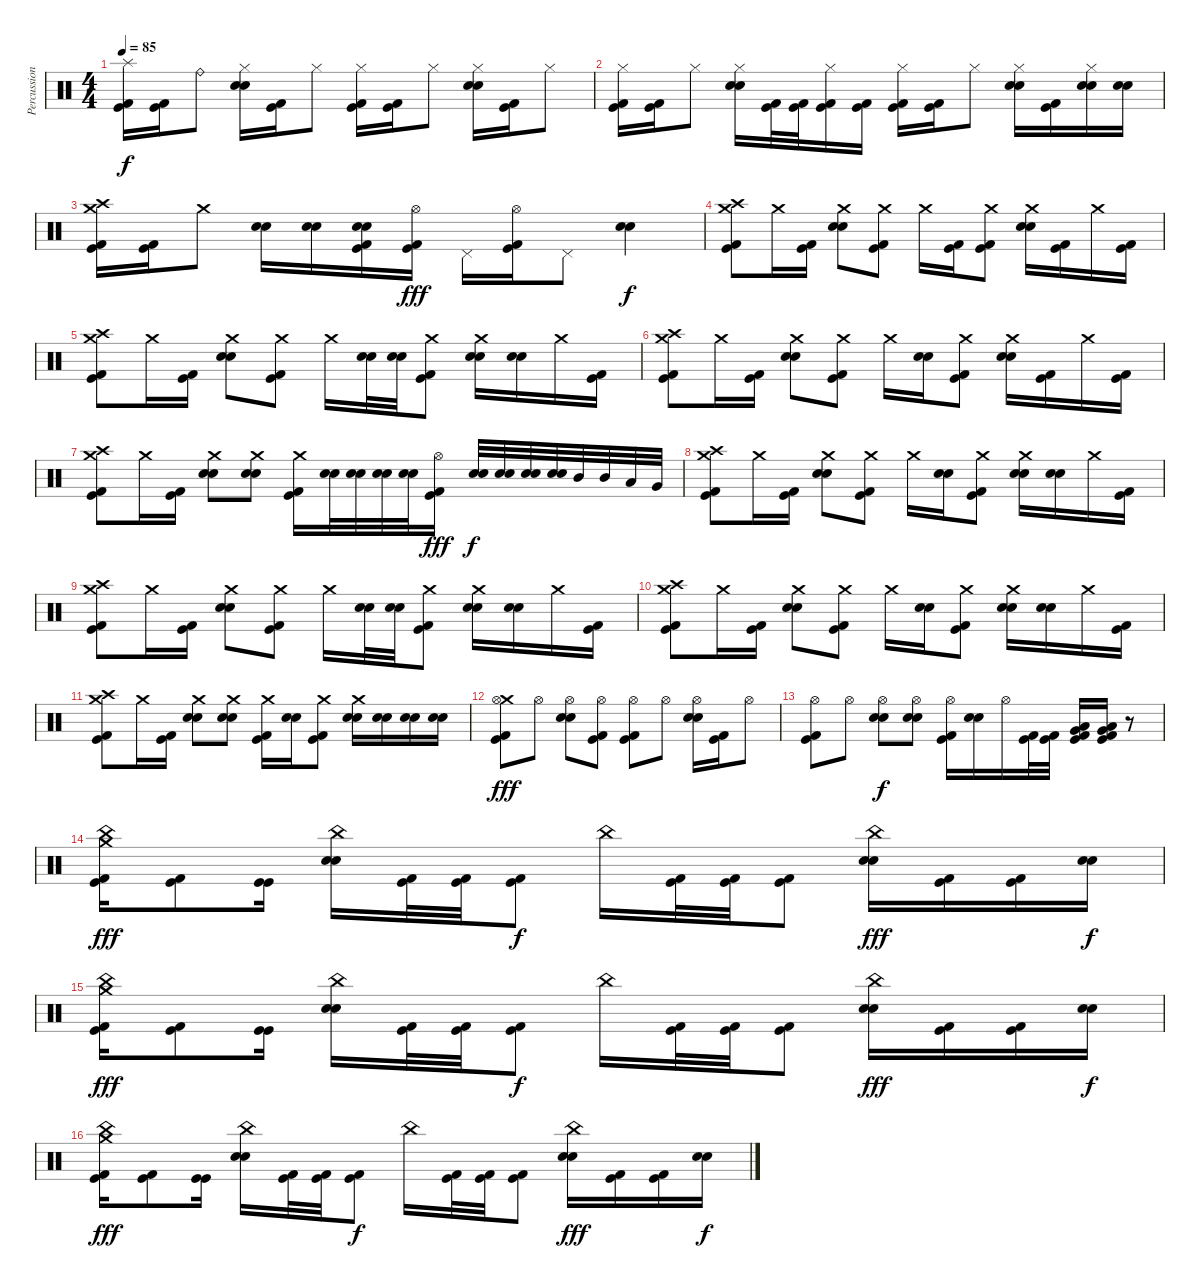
\track ("Percussion" "Percussion") {instrument percussion}
\staff {score}
\articulation defaults
\ts (4 4)
\tempo 85
\clef neutral
\ks c
("Splash (hit)" "Kick (hit)" "Kick (hit) 2").16{dy f balance 2} ("Kick (hit)" "Kick (hit) 2").16 "Ride (bell)".8{balance 14} ("Hi-Hat (closed)" "Electric Snare (hit)" "Snare (hit) 2").16{balance 8} ("Kick (hit)" "Kick (hit) 2").16 "Hi-Hat (closed)".8 ("Hi-Hat (closed)" "Kick (hit)" "Kick (hit) 2").16 ("Kick (hit)" "Kick (hit) 2").16 "Hi-Hat (closed)".8 ("Hi-Hat (closed)" "Electric Snare (hit)" "Snare (hit) 2").16 ("Kick (hit)" "Kick (hit) 2").16 "Hi-Hat (closed)".8 |
("Hi-Hat (closed)" "Kick (hit)" "Kick (hit) 2").16 ("Kick (hit)" "Kick (hit) 2").16 "Hi-Hat (closed)".8 ("Hi-Hat (closed)" "Electric Snare (hit)" "Snare (hit) 2").16 ("Kick (hit)" "Kick (hit) 2").32 ("Kick (hit)" "Kick (hit) 2").32 ("Hi-Hat (closed)" "Kick (hit)" "Kick (hit) 2").16 ("Kick (hit)" "Kick (hit) 2").16 ("Hi-Hat (closed)" "Kick (hit)" "Kick (hit) 2").16 ("Kick (hit)" "Kick (hit) 2").16 "Hi-Hat (closed)".8 ("Hi-Hat (closed)" "Electric Snare (hit)" "Snare (hit) 2").16 ("Kick (hit)" "Kick (hit) 2").16 ("Hi-Hat (closed)" "Electric Snare (hit)" "Snare (hit) 2").16 ("Electric Snare (hit)" "Snare (hit) 2").16 |
("Crash high (hit)" "Crash medium (hit)" "Kick (hit)" "Kick (hit) 2").16 ("Kick (hit)" "Kick (hit) 2").16 "Crash medium (hit)".8 ("Electric Snare (hit)" "Snare (hit) 2").16 ("Electric Snare (hit)" "Snare (hit) 2").16 ("Electric Snare (hit)" "Snare (hit) 2" "Kick (hit)" "Kick (hit) 2").16 ("Hi-Hat (open)" "Kick (hit)" "Kick (hit) 2").16{dy fff} "Pedal Hi-Hat (hit)".16 ("Hi-Hat (open)" "Kick (hit)" "Kick (hit) 2").16 "Pedal Hi-Hat (hit)".8 ("Electric Snare (hit)" "Snare (hit) 2").4{dy f} |
("Crash high (hit)" "Crash medium (hit)" "Kick (hit)" "Kick (hit) 2").8 "Crash medium (hit)".16 ("Kick (hit)" "Kick (hit) 2").16 ("Crash medium (hit)" "Electric Snare (hit)" "Snare (hit) 2").8 ("Crash medium (hit)" "Kick (hit)" "Kick (hit) 2").8 "Crash medium (hit)".16 ("Kick (hit)" "Kick (hit) 2").16 ("Crash medium (hit)" "Kick (hit)" "Kick (hit) 2").8 ("Crash medium (hit)" "Electric Snare (hit)" "Snare (hit) 2").16 ("Kick (hit)" "Kick (hit) 2").16 "Crash medium (hit)".16 ("Kick (hit)" "Kick (hit) 2").16 |
("Crash high (hit)" "Crash medium (hit)" "Kick (hit)" "Kick (hit) 2").8 "Crash medium (hit)".16 ("Kick (hit)" "Kick (hit) 2").16 ("Crash medium (hit)" "Electric Snare (hit)" "Snare (hit) 2").8 ("Crash medium (hit)" "Kick (hit)" "Kick (hit) 2").8 "Crash medium (hit)".16 ("Electric Snare (hit)" "Snare (hit) 2").32 ("Electric Snare (hit)" "Snare (hit) 2").32 ("Crash medium (hit)" "Kick (hit)" "Kick (hit) 2").8 ("Crash medium (hit)" "Electric Snare (hit)" "Snare (hit) 2").16 ("Electric Snare (hit)" "Snare (hit) 2").16 "Crash medium (hit)".16 ("Kick (hit)" "Kick (hit) 2").16 |
("Crash high (hit)" "Crash medium (hit)" "Kick (hit)" "Kick (hit) 2").8 "Crash medium (hit)".16 ("Kick (hit)" "Kick (hit) 2").16 ("Crash medium (hit)" "Electric Snare (hit)" "Snare (hit) 2").8 ("Crash medium (hit)" "Kick (hit)" "Kick (hit) 2").8 "Crash medium (hit)".16 ("Electric Snare (hit)" "Snare (hit) 2").16 ("Crash medium (hit)" "Kick (hit)" "Kick (hit) 2").8 ("Crash medium (hit)" "Electric Snare (hit)" "Snare (hit) 2").16 ("Kick (hit)" "Kick (hit) 2").16 "Crash medium (hit)".16 ("Kick (hit)" "Kick (hit) 2").16 |
("Crash high (hit)" "Crash medium (hit)" "Kick (hit)" "Kick (hit) 2").8 "Crash medium (hit)".16 ("Kick (hit)" "Kick (hit) 2").16 ("Crash medium (hit)" "Electric Snare (hit)" "Snare (hit) 2").8 ("Crash medium (hit)" "Electric Snare (hit)" "Snare (hit) 2").8 ("Crash medium (hit)" "Kick (hit)" "Kick (hit) 2").16 ("Electric Snare (hit)" "Snare (hit) 2").32 ("Electric Snare (hit)" "Snare (hit) 2").32 ("Electric Snare (hit)" "Snare (hit) 2").32 ("Electric Snare (hit)" "Snare (hit) 2").32 ("Hi-Hat (open)" "Kick (hit)" "Kick (hit) 2").16{dy fff} ("Electric Snare (hit)" "Snare (hit) 2").32{dy f} ("Electric Snare (hit)" "Snare (hit) 2").32 ("Electric Snare (hit)" "Snare (hit) 2").32 ("Electric Snare (hit)" "Snare (hit) 2").32 "Mid Tom (hit)".32 "Mid Tom (hit)".32 "Low Tom (hit)".32 "Very Low Tom (hit)".32 |
("Crash high (hit)" "Crash medium (hit)" "Kick (hit)" "Kick (hit) 2").8 "Crash medium (hit)".16 ("Kick (hit)" "Kick (hit) 2").16 ("Crash medium (hit)" "Electric Snare (hit)" "Snare (hit) 2").8 ("Crash medium (hit)" "Kick (hit)" "Kick (hit) 2").8 "Crash medium (hit)".16 ("Electric Snare (hit)" "Snare (hit) 2").16 ("Crash medium (hit)" "Kick (hit)" "Kick (hit) 2").8 ("Crash medium (hit)" "Electric Snare (hit)" "Snare (hit) 2").16 ("Electric Snare (hit)" "Snare (hit) 2").16 "Crash medium (hit)".16 ("Kick (hit)" "Kick (hit) 2").16 |
("Crash high (hit)" "Crash medium (hit)" "Kick (hit)" "Kick (hit) 2").8 "Crash medium (hit)".16 ("Kick (hit)" "Kick (hit) 2").16 ("Crash medium (hit)" "Electric Snare (hit)" "Snare (hit) 2").8 ("Crash medium (hit)" "Kick (hit)" "Kick (hit) 2").8 "Crash medium (hit)".16 ("Electric Snare (hit)" "Snare (hit) 2").32 ("Electric Snare (hit)" "Snare (hit) 2").32 ("Crash medium (hit)" "Kick (hit)" "Kick (hit) 2").8 ("Crash medium (hit)" "Electric Snare (hit)" "Snare (hit) 2").16 ("Electric Snare (hit)" "Snare (hit) 2").16 "Crash medium (hit)".16 ("Kick (hit)" "Kick (hit) 2").16 |
("Crash high (hit)" "Crash medium (hit)" "Kick (hit)" "Kick (hit) 2").8 "Crash medium (hit)".16 ("Kick (hit)" "Kick (hit) 2").16 ("Crash medium (hit)" "Electric Snare (hit)" "Snare (hit) 2").8 ("Crash medium (hit)" "Kick (hit)" "Kick (hit) 2").8 "Crash medium (hit)".16 ("Electric Snare (hit)" "Snare (hit) 2").16 ("Crash medium (hit)" "Kick (hit)" "Kick (hit) 2").8 ("Crash medium (hit)" "Electric Snare (hit)" "Snare (hit) 2").16 ("Electric Snare (hit)" "Snare (hit) 2").16 "Crash medium (hit)".16 ("Kick (hit)" "Kick (hit) 2").16 |
("Crash high (hit)" "Crash medium (hit)" "Kick (hit)" "Kick (hit) 2").8 "Crash medium (hit)".16 ("Kick (hit)" "Kick (hit) 2").16 ("Crash medium (hit)" "Electric Snare (hit)" "Snare (hit) 2").8 ("Crash medium (hit)" "Electric Snare (hit)" "Snare (hit) 2").8 ("Crash medium (hit)" "Kick (hit)" "Kick (hit) 2").16 ("Electric Snare (hit)" "Snare (hit) 2").16 ("Crash medium (hit)" "Kick (hit)" "Kick (hit) 2").8 ("Crash medium (hit)" "Electric Snare (hit)" "Snare (hit) 2").16 ("Electric Snare (hit)" "Snare (hit) 2").16 ("Electric Snare (hit)" "Snare (hit) 2").16 ("Electric Snare (hit)" "Snare (hit) 2").16 |
("Crash medium (hit)" "Hi-Hat (open)" "Kick (hit)" "Kick (hit) 2").8{dy fff} "Hi-Hat (open)".8 ("Hi-Hat (open)" "Electric Snare (hit)" "Snare (hit) 2").8 ("Hi-Hat (open)" "Kick (hit)" "Kick (hit) 2").8 ("Hi-Hat (open)" "Kick (hit)" "Kick (hit) 2").8 "Hi-Hat (open)".8 ("Hi-Hat (open)" "Electric Snare (hit)" "Snare (hit) 2").16 ("Kick (hit)" "Kick (hit) 2").16 "Hi-Hat (open)".8 |
("Hi-Hat (open)" "Kick (hit)" "Kick (hit) 2").8 "Hi-Hat (open)".8 ("Hi-Hat (open)" "Electric Snare (hit)" "Snare (hit) 2").8{dy f} ("Hi-Hat (open)" "Electric Snare (hit)" "Snare (hit) 2").8 ("Hi-Hat (open)" "Kick (hit)" "Kick (hit) 2").16 ("Electric Snare (hit)" "Snare (hit) 2").16 "Hi-Hat (open)".16 ("Kick (hit)" "Kick (hit) 2").32 ("Kick (hit)" "Kick (hit) 2").32 ("Low Tom (hit)" "Very Low Tom (hit)" "Kick (hit)" "Kick (hit) 2").16 ("Very Low Tom (hit)" "Low Floor Tom (hit)" "Kick (hit)" "Kick (hit) 2").16 r.8 |
("Crash medium (hit)" "China (hit)" "Kick (hit)" "Kick (hit) 2").16{dy fff} ("Kick (hit)" "Kick (hit) 2").8 ("Kick (hit)" "Kick (hit)").16 ("China (hit)" "Electric Snare (hit)" "Snare (hit) 2").16 ("Kick (hit)" "Kick (hit) 2").32 ("Kick (hit)" "Kick (hit) 2").32 ("Kick (hit)" "Kick (hit) 2").8{dy f} "China (hit)".16 ("Kick (hit)" "Kick (hit) 2").32 ("Kick (hit)" "Kick (hit) 2").32 ("Kick (hit)" "Kick (hit) 2").8 ("China (hit)" "Electric Snare (hit)" "Snare (hit) 2").16{dy fff} ("Kick (hit)" "Kick (hit) 2").16 ("Kick (hit)" "Kick (hit) 2").16 ("Electric Snare (hit)" "Snare (hit) 2").16{dy f} |
("Crash medium (hit)" "China (hit)" "Kick (hit)" "Kick (hit) 2").16{dy fff} ("Kick (hit)" "Kick (hit) 2").8 ("Kick (hit)" "Kick (hit)").16 ("China (hit)" "Electric Snare (hit)" "Snare (hit) 2").16 ("Kick (hit)" "Kick (hit) 2").32 ("Kick (hit)" "Kick (hit) 2").32 ("Kick (hit)" "Kick (hit) 2").8{dy f} "China (hit)".16 ("Kick (hit)" "Kick (hit) 2").32 ("Kick (hit)" "Kick (hit) 2").32 ("Kick (hit)" "Kick (hit) 2").8 ("China (hit)" "Electric Snare (hit)" "Snare (hit) 2").16{dy fff} ("Kick (hit)" "Kick (hit) 2").16 ("Kick (hit)" "Kick (hit) 2").16 ("Electric Snare (hit)" "Snare (hit) 2").16{dy f} |
("Crash medium (hit)" "China (hit)" "Kick (hit)" "Kick (hit) 2").16{dy fff} ("Kick (hit)" "Kick (hit) 2").8 ("Kick (hit)" "Kick (hit)").16 ("China (hit)" "Electric Snare (hit)" "Snare (hit) 2").16 ("Kick (hit)" "Kick (hit) 2").32 ("Kick (hit)" "Kick (hit) 2").32 ("Kick (hit)" "Kick (hit) 2").8{dy f} "China (hit)".16 ("Kick (hit)" "Kick (hit) 2").32 ("Kick (hit)" "Kick (hit) 2").32 ("Kick (hit)" "Kick (hit) 2").8 ("China (hit)" "Electric Snare (hit)" "Snare (hit) 2").16{dy fff} ("Kick (hit)" "Kick (hit) 2").16 ("Kick (hit)" "Kick (hit) 2").16 ("Electric Snare (hit)" "Snare (hit) 2").16{dy f}
